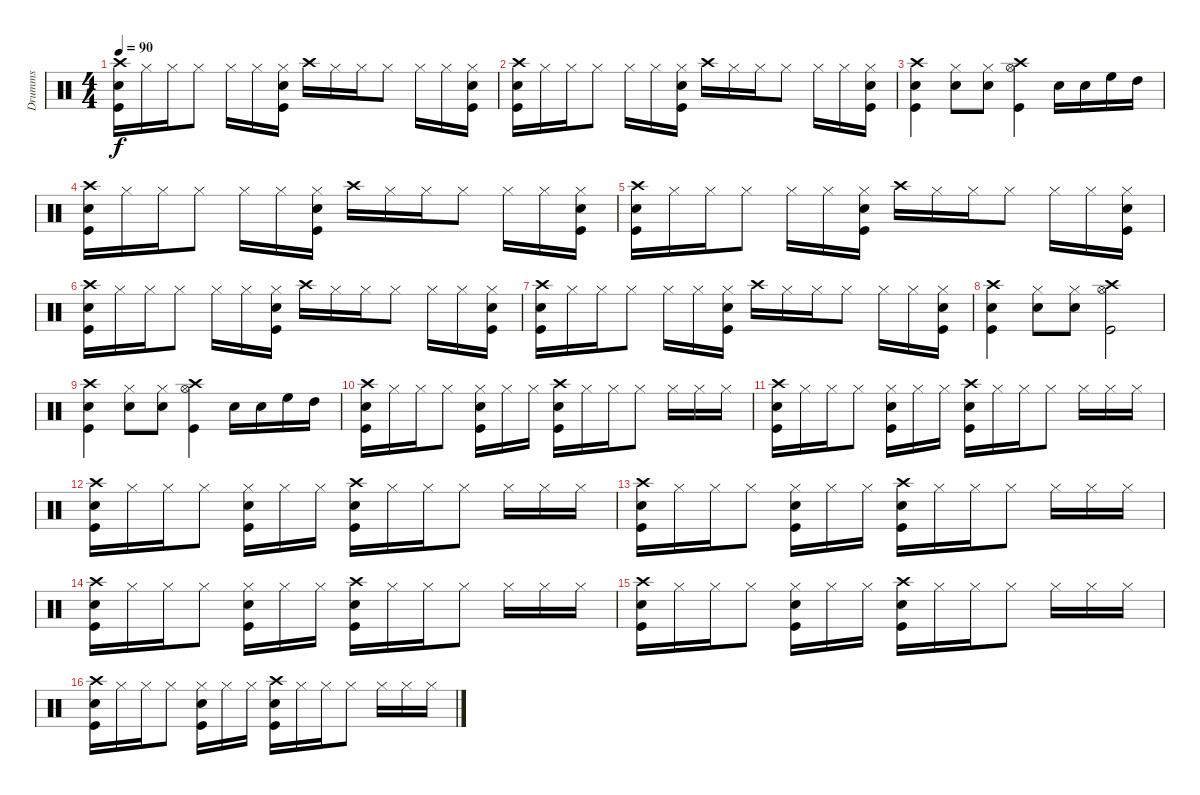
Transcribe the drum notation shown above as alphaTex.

\track ("Drumms" "Drumms") {instrument percussion}
\staff {score}
\articulation defaults
\ts (4 4)
\tempo 90
\clef neutral
\ks c
("Crash high (hit)" "Snare (hit) 2" "Kick (hit)").16{dy f} "Hi-Hat (closed)".16 "Hi-Hat (closed)".16 "Hi-Hat (closed)".8 "Hi-Hat (closed)".16 "Hi-Hat (closed)".16 ("Hi-Hat (closed)" "Snare (hit) 2" "Kick (hit)").16 "Crash high (hit)".16 "Hi-Hat (closed)".16 "Hi-Hat (closed)".16 "Hi-Hat (closed)".8 "Hi-Hat (closed)".16 "Hi-Hat (closed)".16 ("Hi-Hat (closed)" "Snare (hit) 2" "Kick (hit)").16 |
("Crash high (hit)" "Snare (hit) 2" "Kick (hit)").16 "Hi-Hat (closed)".16 "Hi-Hat (closed)".16 "Hi-Hat (closed)".8 "Hi-Hat (closed)".16 "Hi-Hat (closed)".16 ("Hi-Hat (closed)" "Snare (hit) 2" "Kick (hit)").16 "Crash high (hit)".16 "Hi-Hat (closed)".16 "Hi-Hat (closed)".16 "Hi-Hat (closed)".8 "Hi-Hat (closed)".16 "Hi-Hat (closed)".16 ("Hi-Hat (closed)" "Snare (hit) 2" "Kick (hit)").16 |
("Snare (hit) 2" "Kick (hit)" "Crash high (hit)").4 ("Hi-Hat (closed)" "Snare (hit) 2").8 ("Hi-Hat (closed)" "Snare (hit) 2").8 ("Hi-Hat (open)" "Kick (hit)" "Crash high (hit)").4 "Snare (hit) 2".16 "Snare (hit) 2".16 "High Floor Tom (hit)".16 "High Tom (hit)".16 |
("Crash high (hit)" "Snare (hit) 2" "Kick (hit)").16 "Hi-Hat (closed)".16 "Hi-Hat (closed)".16 "Hi-Hat (closed)".8 "Hi-Hat (closed)".16 "Hi-Hat (closed)".16 ("Hi-Hat (closed)" "Snare (hit) 2" "Kick (hit)").16 "Crash high (hit)".16 "Hi-Hat (closed)".16 "Hi-Hat (closed)".16 "Hi-Hat (closed)".8 "Hi-Hat (closed)".16 "Hi-Hat (closed)".16 ("Hi-Hat (closed)" "Snare (hit) 2" "Kick (hit)").16 |
("Crash high (hit)" "Snare (hit) 2" "Kick (hit)").16 "Hi-Hat (closed)".16 "Hi-Hat (closed)".16 "Hi-Hat (closed)".8 "Hi-Hat (closed)".16 "Hi-Hat (closed)".16 ("Hi-Hat (closed)" "Snare (hit) 2" "Kick (hit)").16 "Crash high (hit)".16 "Hi-Hat (closed)".16 "Hi-Hat (closed)".16 "Hi-Hat (closed)".8 "Hi-Hat (closed)".16 "Hi-Hat (closed)".16 ("Hi-Hat (closed)" "Snare (hit) 2" "Kick (hit)").16 |
("Crash high (hit)" "Snare (hit) 2" "Kick (hit)").16 "Hi-Hat (closed)".16 "Hi-Hat (closed)".16 "Hi-Hat (closed)".8 "Hi-Hat (closed)".16 "Hi-Hat (closed)".16 ("Hi-Hat (closed)" "Snare (hit) 2" "Kick (hit)").16 "Crash high (hit)".16 "Hi-Hat (closed)".16 "Hi-Hat (closed)".16 "Hi-Hat (closed)".8 "Hi-Hat (closed)".16 "Hi-Hat (closed)".16 ("Hi-Hat (closed)" "Snare (hit) 2" "Kick (hit)").16 |
("Crash high (hit)" "Snare (hit) 2" "Kick (hit)").16 "Hi-Hat (closed)".16 "Hi-Hat (closed)".16 "Hi-Hat (closed)".8 "Hi-Hat (closed)".16 "Hi-Hat (closed)".16 ("Hi-Hat (closed)" "Snare (hit) 2" "Kick (hit)").16 "Crash high (hit)".16 "Hi-Hat (closed)".16 "Hi-Hat (closed)".16 "Hi-Hat (closed)".8 "Hi-Hat (closed)".16 "Hi-Hat (closed)".16 ("Hi-Hat (closed)" "Snare (hit) 2" "Kick (hit)").16 |
("Snare (hit) 2" "Kick (hit)" "Crash high (hit)").4 ("Hi-Hat (closed)" "Snare (hit) 2").8 ("Hi-Hat (closed)" "Snare (hit) 2").8 ("Hi-Hat (open)" "Kick (hit)" "Crash high (hit)").2 |
("Snare (hit) 2" "Kick (hit)" "Crash high (hit)").4 ("Hi-Hat (closed)" "Snare (hit) 2").8 ("Hi-Hat (closed)" "Snare (hit) 2").8 ("Hi-Hat (open)" "Kick (hit)" "Crash high (hit)").4 "Snare (hit) 2".16 "Snare (hit) 2".16 "High Floor Tom (hit)".16 "High Tom (hit)".16 |
("Crash high (hit)" "Snare (hit) 2" "Kick (hit)").16 "Hi-Hat (closed)".16 "Hi-Hat (closed)".16 "Hi-Hat (closed)".8 ("Hi-Hat (closed)" "Snare (hit) 2" "Kick (hit)").16 "Hi-Hat (closed)".16 "Hi-Hat (closed)".16 ("Crash high (hit)" "Snare (hit) 2" "Kick (hit)").16 "Hi-Hat (closed)".16 "Hi-Hat (closed)".16 "Hi-Hat (closed)".8 "Hi-Hat (closed)".16 "Hi-Hat (closed)".16 "Hi-Hat (closed)".16 |
("Crash high (hit)" "Snare (hit) 2" "Kick (hit)").16 "Hi-Hat (closed)".16 "Hi-Hat (closed)".16 "Hi-Hat (closed)".8 ("Hi-Hat (closed)" "Snare (hit) 2" "Kick (hit)").16 "Hi-Hat (closed)".16 "Hi-Hat (closed)".16 ("Crash high (hit)" "Snare (hit) 2" "Kick (hit)").16 "Hi-Hat (closed)".16 "Hi-Hat (closed)".16 "Hi-Hat (closed)".8 "Hi-Hat (closed)".16 "Hi-Hat (closed)".16 "Hi-Hat (closed)".16 |
("Crash high (hit)" "Snare (hit) 2" "Kick (hit)").16 "Hi-Hat (closed)".16 "Hi-Hat (closed)".16 "Hi-Hat (closed)".8 ("Hi-Hat (closed)" "Snare (hit) 2" "Kick (hit)").16 "Hi-Hat (closed)".16 "Hi-Hat (closed)".16 ("Crash high (hit)" "Snare (hit) 2" "Kick (hit)").16 "Hi-Hat (closed)".16 "Hi-Hat (closed)".16 "Hi-Hat (closed)".8 "Hi-Hat (closed)".16 "Hi-Hat (closed)".16 "Hi-Hat (closed)".16 |
("Crash high (hit)" "Snare (hit) 2" "Kick (hit)").16 "Hi-Hat (closed)".16 "Hi-Hat (closed)".16 "Hi-Hat (closed)".8 ("Hi-Hat (closed)" "Snare (hit) 2" "Kick (hit)").16 "Hi-Hat (closed)".16 "Hi-Hat (closed)".16 ("Crash high (hit)" "Snare (hit) 2" "Kick (hit)").16 "Hi-Hat (closed)".16 "Hi-Hat (closed)".16 "Hi-Hat (closed)".8 "Hi-Hat (closed)".16 "Hi-Hat (closed)".16 "Hi-Hat (closed)".16 |
("Crash high (hit)" "Snare (hit) 2" "Kick (hit)").16 "Hi-Hat (closed)".16 "Hi-Hat (closed)".16 "Hi-Hat (closed)".8 ("Hi-Hat (closed)" "Snare (hit) 2" "Kick (hit)").16 "Hi-Hat (closed)".16 "Hi-Hat (closed)".16 ("Crash high (hit)" "Snare (hit) 2" "Kick (hit)").16 "Hi-Hat (closed)".16 "Hi-Hat (closed)".16 "Hi-Hat (closed)".8 "Hi-Hat (closed)".16 "Hi-Hat (closed)".16 "Hi-Hat (closed)".16 |
("Crash high (hit)" "Snare (hit) 2" "Kick (hit)").16 "Hi-Hat (closed)".16 "Hi-Hat (closed)".16 "Hi-Hat (closed)".8 ("Hi-Hat (closed)" "Snare (hit) 2" "Kick (hit)").16 "Hi-Hat (closed)".16 "Hi-Hat (closed)".16 ("Crash high (hit)" "Snare (hit) 2" "Kick (hit)").16 "Hi-Hat (closed)".16 "Hi-Hat (closed)".16 "Hi-Hat (closed)".8 "Hi-Hat (closed)".16 "Hi-Hat (closed)".16 "Hi-Hat (closed)".16 |
("Crash high (hit)" "Snare (hit) 2" "Kick (hit)").16 "Hi-Hat (closed)".16 "Hi-Hat (closed)".16 "Hi-Hat (closed)".8 ("Hi-Hat (closed)" "Snare (hit) 2" "Kick (hit)").16 "Hi-Hat (closed)".16 "Hi-Hat (closed)".16 ("Crash high (hit)" "Snare (hit) 2" "Kick (hit)").16 "Hi-Hat (closed)".16 "Hi-Hat (closed)".16 "Hi-Hat (closed)".8 "Hi-Hat (closed)".16 "Hi-Hat (closed)".16 "Hi-Hat (closed)".16
